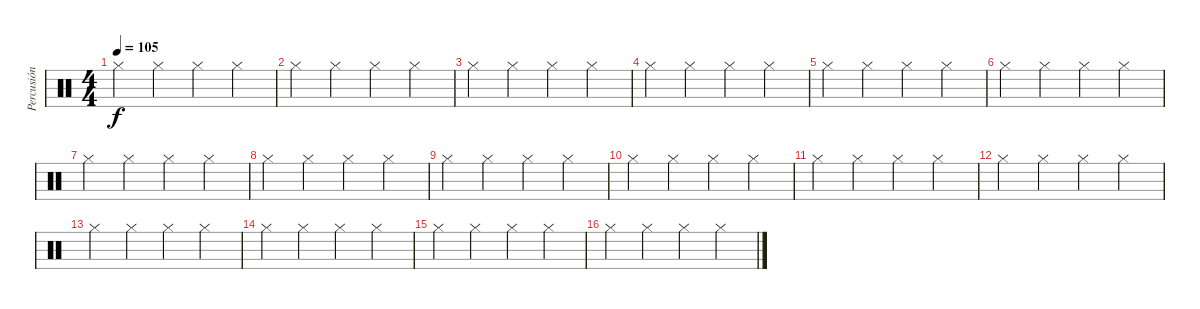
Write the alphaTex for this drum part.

\track ("Percusión" "Percusión") {instrument percussion}
\staff {score}
\articulation defaults
\ts (4 4)
\tempo 105
\clef neutral
\ks c "Hi-Hat (closed)".4{dy f} "Hi-Hat (closed)".4 "Hi-Hat (closed)".4 "Hi-Hat (closed)".4
|
"Hi-Hat (closed)".4 "Hi-Hat (closed)".4 "Hi-Hat (closed)".4 "Hi-Hat (closed)".4 |
"Hi-Hat (closed)".4 "Hi-Hat (closed)".4 "Hi-Hat (closed)".4 "Hi-Hat (closed)".4 |
"Hi-Hat (closed)".4 "Hi-Hat (closed)".4 "Hi-Hat (closed)".4 "Hi-Hat (closed)".4 |
"Hi-Hat (closed)".4 "Hi-Hat (closed)".4 "Hi-Hat (closed)".4 "Hi-Hat (closed)".4 |
"Hi-Hat (closed)".4 "Hi-Hat (closed)".4 "Hi-Hat (closed)".4 "Hi-Hat (closed)".4 |
"Hi-Hat (closed)".4 "Hi-Hat (closed)".4 "Hi-Hat (closed)".4 "Hi-Hat (closed)".4 |
"Hi-Hat (closed)".4 "Hi-Hat (closed)".4 "Hi-Hat (closed)".4 "Hi-Hat (closed)".4 |
"Hi-Hat (closed)".4 "Hi-Hat (closed)".4 "Hi-Hat (closed)".4 "Hi-Hat (closed)".4 |
"Hi-Hat (closed)".4 "Hi-Hat (closed)".4 "Hi-Hat (closed)".4 "Hi-Hat (closed)".4 |
"Hi-Hat (closed)".4 "Hi-Hat (closed)".4 "Hi-Hat (closed)".4 "Hi-Hat (closed)".4 |
"Hi-Hat (closed)".4 "Hi-Hat (closed)".4 "Hi-Hat (closed)".4 "Hi-Hat (closed)".4 |
"Hi-Hat (closed)".4 "Hi-Hat (closed)".4 "Hi-Hat (closed)".4 "Hi-Hat (closed)".4 |
"Hi-Hat (closed)".4 "Hi-Hat (closed)".4 "Hi-Hat (closed)".4 "Hi-Hat (closed)".4 |
"Hi-Hat (closed)".4 "Hi-Hat (closed)".4 "Hi-Hat (closed)".4 "Hi-Hat (closed)".4 |
"Hi-Hat (closed)".4 "Hi-Hat (closed)".4 "Hi-Hat (closed)".4 "Hi-Hat (closed)".4
